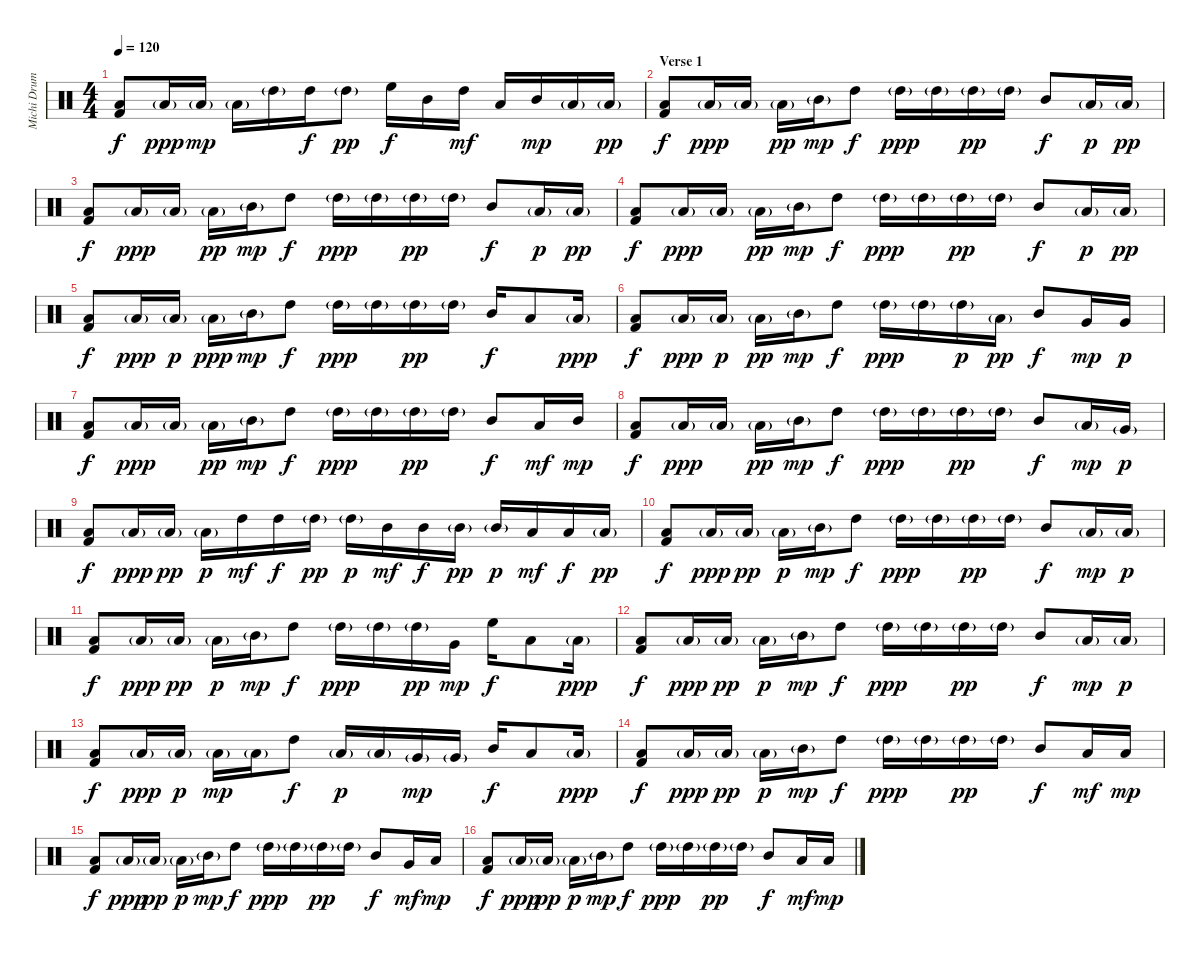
\track ("Michi Drums" "Michi Drum") {instrument percussion}
\staff {score}
\articulation defaults
\ts (4 4)
\tempo 120
\clef neutral
\ks c
("Low Floor Tom (hit)" "Kick (hit) 2").8{dy f} "Low Floor Tom (hit)"{g}.16{dy ppp} "Low Tom (hit)"{g}.16{dy mp} "Low Tom (hit)"{g}.16 "High Tom (hit)"{g}.16 "High Tom (hit)".16{dy f} "High Tom (hit)"{g}.8{dy pp} "High Floor Tom (hit)".16{dy f} "Mid Tom (hit)".16 "High Tom (hit)".16{dy mf} "Low Tom (hit)".16 "Mid Tom (hit)".16{dy mp} "Low Floor Tom (hit)"{g}.16 "Low Floor Tom (hit)"{g}.16{dy pp} |
\section ("" "Verse 1")
("Low Floor Tom (hit)" "Kick (hit) 2").8{dy f} "Low Floor Tom (hit)"{g}.16{dy ppp} "Low Tom (hit)"{g}.16 "Low Tom (hit)"{g}.16{dy pp} "Mid Tom (hit)"{g}.16{dy mp} "High Tom (hit)".8{dy f} "High Tom (hit)"{g}.16{dy ppp} "High Tom (hit)"{g}.16 "High Tom (hit)"{g}.16{dy pp} "High Tom (hit)"{g}.16 "Mid Tom (hit)".8{dy f} "Low Tom (hit)"{g}.16{dy p} "Low Tom (hit)"{g}.16{dy pp} |
("Low Floor Tom (hit)" "Kick (hit) 2").8{dy f} "Low Floor Tom (hit)"{g}.16{dy ppp} "Low Tom (hit)"{g}.16 "Low Tom (hit)"{g}.16{dy pp} "Mid Tom (hit)"{g}.16{dy mp} "High Tom (hit)".8{dy f} "High Tom (hit)"{g}.16{dy ppp} "High Tom (hit)"{g}.16 "High Tom (hit)"{g}.16{dy pp} "High Tom (hit)"{g}.16 "Mid Tom (hit)".8{dy f} "Low Tom (hit)"{g}.16{dy p} "Low Tom (hit)"{g}.16{dy pp} |
("Low Floor Tom (hit)" "Kick (hit) 2").8{dy f} "Low Floor Tom (hit)"{g}.16{dy ppp} "Low Tom (hit)"{g}.16 "Low Tom (hit)"{g}.16{dy pp} "Mid Tom (hit)"{g}.16{dy mp} "High Tom (hit)".8{dy f} "High Tom (hit)"{g}.16{dy ppp} "High Tom (hit)"{g}.16 "High Tom (hit)"{g}.16{dy pp} "High Tom (hit)"{g}.16 "Mid Tom (hit)".8{dy f} "Low Tom (hit)"{g}.16{dy p} "Low Tom (hit)"{g}.16{dy pp} |
("Low Floor Tom (hit)" "Kick (hit) 2").8{dy f} "Low Floor Tom (hit)"{g}.16{dy ppp} "Low Tom (hit)"{g}.16{dy p} "Low Tom (hit)"{g}.16{dy ppp} "Mid Tom (hit)"{g}.16{dy mp} "High Tom (hit)".8{dy f} "High Tom (hit)"{g}.16{dy ppp} "High Tom (hit)"{g}.16 "High Tom (hit)"{g}.16{dy pp} "High Tom (hit)"{g}.16 "Mid Tom (hit)".16{dy f} "Low Floor Tom (hit)".8 "Low Floor Tom (hit)"{g}.16{dy ppp} |
("Low Floor Tom (hit)" "Kick (hit) 2").8{dy f} "Low Floor Tom (hit)"{g}.16{dy ppp} "Low Tom (hit)"{g}.16{dy p} "Low Tom (hit)"{g}.16{dy pp} "Mid Tom (hit)"{g}.16{dy mp} "High Tom (hit)".8{dy f} "High Tom (hit)"{g}.16{dy ppp} "High Tom (hit)"{g}.16 "High Tom (hit)"{g}.16{dy p} "Low Tom (hit)"{g}.16{dy pp} "Mid Tom (hit)".8{dy f} "Very Low Tom (hit)".16{dy mp} "Very Low Tom (hit)".16{dy p} |
("Low Floor Tom (hit)" "Kick (hit) 2").8{dy f} "Low Floor Tom (hit)"{g}.16{dy ppp} "Low Tom (hit)"{g}.16 "Low Tom (hit)"{g}.16{dy pp} "Mid Tom (hit)"{g}.16{dy mp} "High Tom (hit)".8{dy f} "High Tom (hit)"{g}.16{dy ppp} "High Tom (hit)"{g}.16 "High Tom (hit)"{g}.16{dy pp} "High Tom (hit)"{g}.16 "Mid Tom (hit)".8{dy f} "Low Tom (hit)".16{dy mf} "Mid Tom (hit)".16{dy mp} |
("Low Floor Tom (hit)" "Kick (hit) 2").8{dy f} "Low Floor Tom (hit)"{g}.16{dy ppp} "Low Tom (hit)"{g}.16 "Low Tom (hit)"{g}.16{dy pp} "Mid Tom (hit)"{g}.16{dy mp} "High Tom (hit)".8{dy f} "High Tom (hit)"{g}.16{dy ppp} "High Tom (hit)"{g}.16 "High Tom (hit)"{g}.16{dy pp} "High Tom (hit)"{g}.16 "Mid Tom (hit)".8{dy f} "Low Tom (hit)"{g}.16{dy mp} "Very Low Tom (hit)"{g}.16{dy p} |
("Low Floor Tom (hit)" "Kick (hit) 2").8{dy f} "Low Floor Tom (hit)"{g}.16{dy ppp} "Low Tom (hit)"{g}.16{dy pp} "Low Tom (hit)"{g}.16{dy p} "High Tom (hit)".16{dy mf} "High Tom (hit)".16{dy f} "High Tom (hit)"{g}.16{dy pp} "High Tom (hit)"{g}.16{dy p} "Mid Tom (hit)".16{dy mf} "Mid Tom (hit)".16{dy f} "Mid Tom (hit)"{g}.16{dy pp} "Mid Tom (hit)"{g}.16{dy p} "Low Tom (hit)".16{dy mf} "Low Tom (hit)".16{dy f} "Low Tom (hit)"{g}.16{dy pp} |
("Low Floor Tom (hit)" "Kick (hit) 2").8{dy f} "Low Floor Tom (hit)"{g}.16{dy ppp} "Low Tom (hit)"{g}.16{dy pp} "Low Tom (hit)"{g}.16{dy p} "Mid Tom (hit)"{g}.16{dy mp} "High Tom (hit)".8{dy f} "High Tom (hit)"{g}.16{dy ppp} "High Tom (hit)"{g}.16 "High Tom (hit)"{g}.16{dy pp} "High Tom (hit)"{g}.16 "Mid Tom (hit)".8{dy f} "Low Tom (hit)"{g}.16{dy mp} "Low Tom (hit)"{g}.16{dy p} |
("Low Floor Tom (hit)" "Kick (hit) 2").8{dy f} "Low Floor Tom (hit)"{g}.16{dy ppp} "Low Tom (hit)"{g}.16{dy pp} "Low Tom (hit)"{g}.16{dy p} "Mid Tom (hit)"{g}.16{dy mp} "High Tom (hit)".8{dy f} "High Tom (hit)"{g}.16{dy ppp} "High Tom (hit)"{g}.16 "High Tom (hit)"{g}.16{dy pp} "Very Low Tom (hit)".16{dy mp} "High Floor Tom (hit)".16{dy f} "Low Floor Tom (hit)".8 "Low Floor Tom (hit)"{g}.16{dy ppp} |
("Low Floor Tom (hit)" "Kick (hit) 2").8{dy f} "Low Floor Tom (hit)"{g}.16{dy ppp} "Low Tom (hit)"{g}.16{dy pp} "Low Tom (hit)"{g}.16{dy p} "Mid Tom (hit)"{g}.16{dy mp} "High Tom (hit)".8{dy f} "High Tom (hit)"{g}.16{dy ppp} "High Tom (hit)"{g}.16 "High Tom (hit)"{g}.16{dy pp} "High Tom (hit)"{g}.16 "Mid Tom (hit)".8{dy f} "Low Tom (hit)"{g}.16{dy mp} "Low Tom (hit)"{g}.16{dy p} |
("Low Floor Tom (hit)" "Kick (hit) 2").8{dy f} "Low Floor Tom (hit)"{g}.16{dy ppp} "Low Tom (hit)"{g}.16{dy p} "Low Tom (hit)"{g}.16{dy mp} "Low Tom (hit)"{g}.16 "High Tom (hit)".8{dy f} "Low Tom (hit)"{g}.16{dy p} "Low Tom (hit)"{g}.16 "Very Low Tom (hit)"{g}.16{dy mp} "Very Low Tom (hit)"{g}.16 "Mid Tom (hit)".16{dy f} "Low Floor Tom (hit)".8 "Low Floor Tom (hit)"{g}.16{dy ppp} |
("Low Floor Tom (hit)" "Kick (hit) 2").8{dy f} "Low Floor Tom (hit)"{g}.16{dy ppp} "Low Tom (hit)"{g}.16{dy pp} "Low Tom (hit)"{g}.16{dy p} "Mid Tom (hit)"{g}.16{dy mp} "High Tom (hit)".8{dy f} "High Tom (hit)"{g}.16{dy ppp} "High Tom (hit)"{g}.16 "High Tom (hit)"{g}.16{dy pp} "High Tom (hit)"{g}.16 "Mid Tom (hit)".8{dy f} "Low Tom (hit)".16{dy mf} "Low Tom (hit)".16{dy mp} |
("Low Floor Tom (hit)" "Kick (hit) 2").8{dy f} "Low Floor Tom (hit)"{g}.16{dy ppp} "Low Tom (hit)"{g}.16{dy pp} "Low Tom (hit)"{g}.16{dy p} "Mid Tom (hit)"{g}.16{dy mp} "High Tom (hit)".8{dy f} "High Tom (hit)"{g}.16{dy ppp} "High Tom (hit)"{g}.16 "High Tom (hit)"{g}.16{dy pp} "High Tom (hit)"{g}.16 "Mid Tom (hit)".8{dy f} "Very Low Tom (hit)".16{dy mf} "Low Tom (hit)".16{dy mp} |
("Low Floor Tom (hit)" "Kick (hit) 2").8{dy f} "Low Floor Tom (hit)"{g}.16{dy ppp} "Low Tom (hit)"{g}.16{dy pp} "Low Tom (hit)"{g}.16{dy p} "Mid Tom (hit)"{g}.16{dy mp} "High Tom (hit)".8{dy f} "High Tom (hit)"{g}.16{dy ppp} "High Tom (hit)"{g}.16 "High Tom (hit)"{g}.16{dy pp} "High Tom (hit)"{g}.16 "Mid Tom (hit)".8{dy f} "Low Tom (hit)".16{dy mf} "Low Tom (hit)".16{dy mp}
